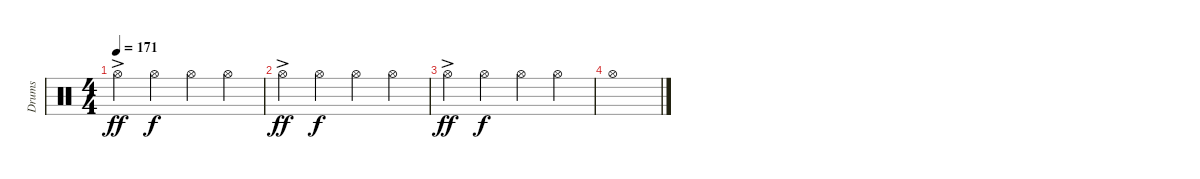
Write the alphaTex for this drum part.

\track ("Drums" "Drums") {instrument percussion}
\staff {score}
\articulation defaults
\ts (4 4)
\tempo 171
\clef neutral
\ks c "Hi-Hat (open)"{ac}.4{dy ff} "Hi-Hat (open)".4{dy f} "Hi-Hat (open)".4 "Hi-Hat (open)".4
|
"Hi-Hat (open)"{ac}.4{dy ff} "Hi-Hat (open)".4{dy f} "Hi-Hat (open)".4 "Hi-Hat (open)".4 |
"Hi-Hat (open)"{ac}.4{dy ff} "Hi-Hat (open)".4{dy f} "Hi-Hat (open)".4 "Hi-Hat (open)".4 |
"Hi-Hat (open)".1
